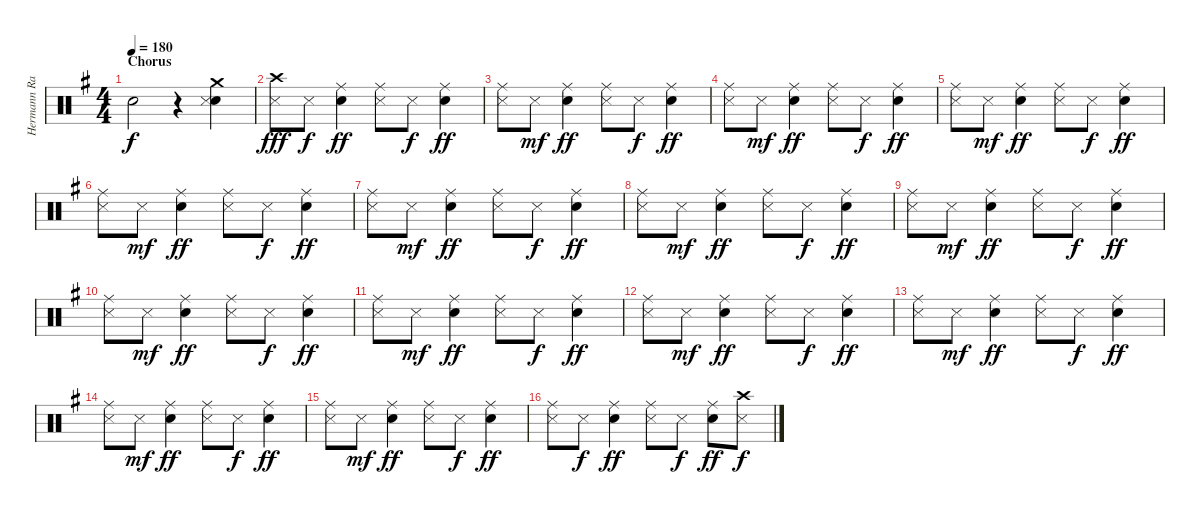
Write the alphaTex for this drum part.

\track ("Hermann Rarebel" "Hermann Ra") {instrument percussion}
\staff {score}
\articulation defaults
\ts (4 4)
\section ("" "Chorus")
\tempo 180
\clef neutral
\ks eminor "Electric Snare (hit)".2{dy f}
r.4 ("Snare (hit) 2" "Metronome (hit)" "Crash medium (hit)").4 |
("Metronome (hit)" "Crash high (hit)").8{dy fff} "Metronome (hit)".8{dy f} ("Snare (hit) 2" "Ride (middle)").4{dy ff} ("Metronome (hit)" "Ride (middle)").8 "Metronome (hit)".8{dy f} ("Snare (hit) 2" "Ride (middle)").4{dy ff} |
("Metronome (hit)" "Ride (middle)").8 "Metronome (hit)".8{dy mf} ("Snare (hit) 2" "Ride (middle)").4{dy ff} ("Metronome (hit)" "Ride (middle)").8 "Metronome (hit)".8{dy f} ("Snare (hit) 2" "Ride (middle)").4{dy ff} |
("Metronome (hit)" "Ride (middle)").8 "Metronome (hit)".8{dy mf} ("Snare (hit) 2" "Ride (middle)").4{dy ff} ("Metronome (hit)" "Ride (middle)").8 "Metronome (hit)".8{dy f} ("Snare (hit) 2" "Ride (middle)").4{dy ff} |
("Metronome (hit)" "Ride (middle)").8 "Metronome (hit)".8{dy mf} ("Snare (hit) 2" "Ride (middle)").4{dy ff} ("Metronome (hit)" "Ride (middle)").8 "Metronome (hit)".8{dy f} ("Snare (hit) 2" "Ride (middle)").4{dy ff} |
("Metronome (hit)" "Ride (middle)").8 "Metronome (hit)".8{dy mf} ("Snare (hit) 2" "Ride (middle)").4{dy ff} ("Metronome (hit)" "Ride (middle)").8 "Metronome (hit)".8{dy f} ("Snare (hit) 2" "Ride (middle)").4{dy ff} |
("Metronome (hit)" "Ride (middle)").8 "Metronome (hit)".8{dy mf} ("Snare (hit) 2" "Ride (middle)").4{dy ff} ("Metronome (hit)" "Ride (middle)").8 "Metronome (hit)".8{dy f} ("Snare (hit) 2" "Ride (middle)").4{dy ff} |
("Metronome (hit)" "Ride (middle)").8 "Metronome (hit)".8{dy mf} ("Snare (hit) 2" "Ride (middle)").4{dy ff} ("Metronome (hit)" "Ride (middle)").8 "Metronome (hit)".8{dy f} ("Snare (hit) 2" "Ride (middle)").4{dy ff} |
("Metronome (hit)" "Ride (middle)").8 "Metronome (hit)".8{dy mf} ("Snare (hit) 2" "Ride (middle)").4{dy ff} ("Metronome (hit)" "Ride (middle)").8 "Metronome (hit)".8{dy f} ("Snare (hit) 2" "Ride (middle)").4{dy ff} |
("Metronome (hit)" "Ride (middle)").8 "Metronome (hit)".8{dy mf} ("Snare (hit) 2" "Ride (middle)").4{dy ff} ("Metronome (hit)" "Ride (middle)").8 "Metronome (hit)".8{dy f} ("Snare (hit) 2" "Ride (middle)").4{dy ff} |
("Metronome (hit)" "Ride (middle)").8 "Metronome (hit)".8{dy mf} ("Snare (hit) 2" "Ride (middle)").4{dy ff} ("Metronome (hit)" "Ride (middle)").8 "Metronome (hit)".8{dy f} ("Snare (hit) 2" "Ride (middle)").4{dy ff} |
("Metronome (hit)" "Ride (middle)").8 "Metronome (hit)".8{dy mf} ("Snare (hit) 2" "Ride (middle)").4{dy ff} ("Metronome (hit)" "Ride (middle)").8 "Metronome (hit)".8{dy f} ("Snare (hit) 2" "Ride (middle)").4{dy ff} |
("Metronome (hit)" "Ride (middle)").8 "Metronome (hit)".8{dy mf} ("Snare (hit) 2" "Ride (middle)").4{dy ff} ("Metronome (hit)" "Ride (middle)").8 "Metronome (hit)".8{dy f} ("Snare (hit) 2" "Ride (middle)").4{dy ff} |
("Metronome (hit)" "Ride (middle)").8 "Metronome (hit)".8{dy mf} ("Snare (hit) 2" "Ride (middle)").4{dy ff} ("Metronome (hit)" "Ride (middle)").8 "Metronome (hit)".8{dy f} ("Snare (hit) 2" "Ride (middle)").4{dy ff} |
("Metronome (hit)" "Ride (middle)").8 "Metronome (hit)".8{dy mf} ("Snare (hit) 2" "Ride (middle)").4{dy ff} ("Metronome (hit)" "Ride (middle)").8 "Metronome (hit)".8{dy f} ("Snare (hit) 2" "Ride (middle)").4{dy ff} |
("Metronome (hit)" "Ride (middle)").8 "Metronome (hit)".8{dy f} ("Snare (hit) 2" "Ride (middle)").4{dy ff} ("Metronome (hit)" "Ride (middle)").8 "Metronome (hit)".8{dy f} ("Snare (hit) 2" "Ride (middle)").8{dy ff} ("Metronome (hit)" "Crash high (hit)").8{dy f}
